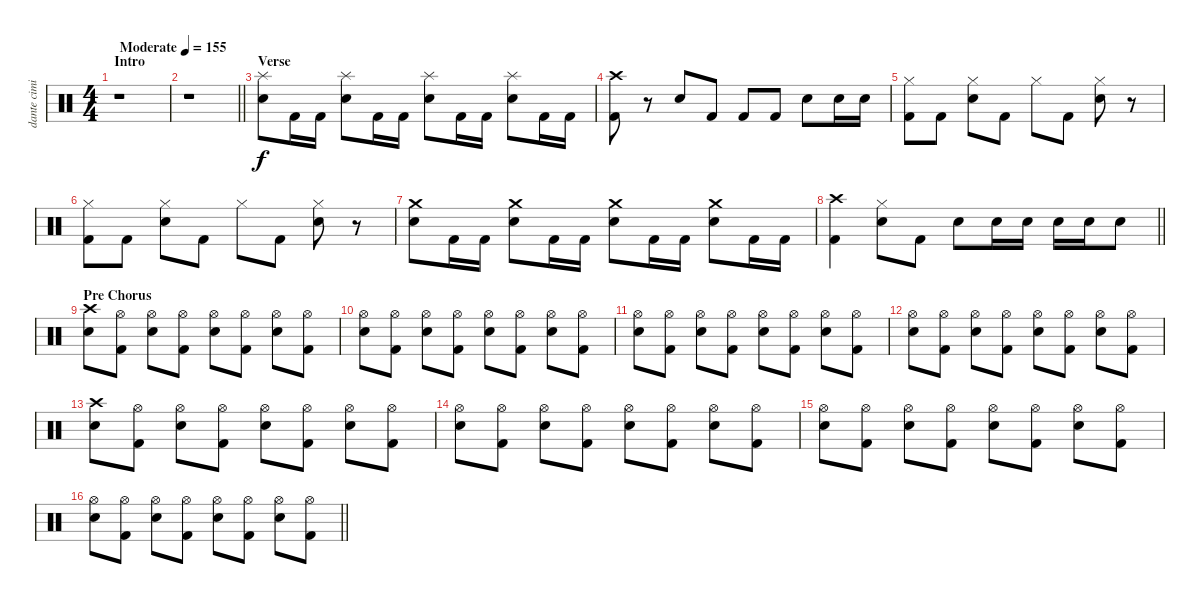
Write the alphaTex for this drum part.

\track ("dante cimino" "dante cimi") {instrument percussion}
\staff {score}
\articulation defaults
\ts (4 4)
\section ("" "Intro")
\tempo (155 "Moderate")
\clef neutral
\ks c
r.1{dy f} |
\barLineRight lightlight
r.1 |
\section ("" "Verse")
("Splash (hit)" "Electric Snare (hit)").8 "Kick (hit) 2".16 "Kick (hit) 2".16 ("Splash (hit)" "Electric Snare (hit)").8 "Kick (hit) 2".16 "Kick (hit) 2".16 ("Splash (hit)" "Electric Snare (hit)").8 "Kick (hit) 2".16 "Kick (hit) 2".16 ("Splash (hit)" "Electric Snare (hit)").8 "Kick (hit) 2".16 "Kick (hit) 2".16 |
("Crash high (hit)" "Kick (hit) 2").8 r.8 "Electric Snare (hit)".8 "Kick (hit) 2".8 "Kick (hit) 2".8 "Kick (hit) 2".8 "Electric Snare (hit)".8 "Electric Snare (hit)".16 "Electric Snare (hit)".16 |
("Hi-Hat (closed)" "Kick (hit) 2").8 "Kick (hit) 2".8 ("Hi-Hat (closed)" "Electric Snare (hit)").8 "Kick (hit) 2".8 "Hi-Hat (closed)".8 "Kick (hit) 2".8 ("Hi-Hat (closed)" "Electric Snare (hit)").8 r.8 |
("Hi-Hat (closed)" "Kick (hit) 2").8 "Kick (hit) 2".8 ("Hi-Hat (closed)" "Electric Snare (hit)").8 "Kick (hit) 2".8 "Hi-Hat (closed)".8 "Kick (hit) 2".8 ("Hi-Hat (closed)" "Electric Snare (hit)").8 r.8 |
("Crash medium (hit)" "Electric Snare (hit)").8 "Kick (hit) 2".16 "Kick (hit) 2".16 ("Crash medium (hit)" "Electric Snare (hit)").8 "Kick (hit) 2".16 "Kick (hit) 2".16 ("Crash medium (hit)" "Electric Snare (hit)").8 "Kick (hit) 2".16 "Kick (hit) 2".16 ("Crash medium (hit)" "Electric Snare (hit)").8 "Kick (hit) 2".16 "Kick (hit) 2".16 |
\barLineRight lightlight
("Crash high (hit)" "Kick (hit) 2").4 ("Hi-Hat (closed)" "Electric Snare (hit)").8 "Kick (hit) 2".8 "Electric Snare (hit)".8 "Electric Snare (hit)".16 "Electric Snare (hit)".16 "Electric Snare (hit)".16 "Electric Snare (hit)".16 "Electric Snare (hit)".8 |
\section ("" "Pre Chorus")
("Crash high (hit)" "Electric Snare (hit)").8 ("Hi-Hat (open)" "Kick (hit) 2").8 ("Hi-Hat (open)" "Electric Snare (hit)").8 ("Hi-Hat (open)" "Kick (hit) 2").8 ("Hi-Hat (open)" "Electric Snare (hit)").8 ("Hi-Hat (open)" "Kick (hit) 2").8 ("Hi-Hat (open)" "Electric Snare (hit)").8 ("Hi-Hat (open)" "Kick (hit) 2").8 |
("Hi-Hat (open)" "Electric Snare (hit)").8 ("Hi-Hat (open)" "Kick (hit) 2").8 ("Hi-Hat (open)" "Electric Snare (hit)").8 ("Hi-Hat (open)" "Kick (hit) 2").8 ("Hi-Hat (open)" "Electric Snare (hit)").8 ("Hi-Hat (open)" "Kick (hit) 2").8 ("Hi-Hat (open)" "Electric Snare (hit)").8 ("Hi-Hat (open)" "Kick (hit) 2").8 |
("Hi-Hat (open)" "Electric Snare (hit)").8 ("Hi-Hat (open)" "Kick (hit) 2").8 ("Hi-Hat (open)" "Electric Snare (hit)").8 ("Hi-Hat (open)" "Kick (hit) 2").8 ("Hi-Hat (open)" "Electric Snare (hit)").8 ("Hi-Hat (open)" "Kick (hit) 2").8 ("Hi-Hat (open)" "Electric Snare (hit)").8 ("Hi-Hat (open)" "Kick (hit) 2").8 |
("Hi-Hat (open)" "Electric Snare (hit)").8 ("Hi-Hat (open)" "Kick (hit) 2").8 ("Hi-Hat (open)" "Electric Snare (hit)").8 ("Hi-Hat (open)" "Kick (hit) 2").8 ("Hi-Hat (open)" "Electric Snare (hit)").8 ("Hi-Hat (open)" "Kick (hit) 2").8 ("Hi-Hat (open)" "Electric Snare (hit)").8 ("Hi-Hat (open)" "Kick (hit) 2").8 |
("Crash high (hit)" "Electric Snare (hit)").8 ("Hi-Hat (open)" "Kick (hit) 2").8 ("Hi-Hat (open)" "Electric Snare (hit)").8 ("Hi-Hat (open)" "Kick (hit) 2").8 ("Hi-Hat (open)" "Electric Snare (hit)").8 ("Hi-Hat (open)" "Kick (hit) 2").8 ("Hi-Hat (open)" "Electric Snare (hit)").8 ("Hi-Hat (open)" "Kick (hit) 2").8 |
("Hi-Hat (open)" "Electric Snare (hit)").8 ("Hi-Hat (open)" "Kick (hit) 2").8 ("Hi-Hat (open)" "Electric Snare (hit)").8 ("Hi-Hat (open)" "Kick (hit) 2").8 ("Hi-Hat (open)" "Electric Snare (hit)").8 ("Hi-Hat (open)" "Kick (hit) 2").8 ("Hi-Hat (open)" "Electric Snare (hit)").8 ("Hi-Hat (open)" "Kick (hit) 2").8 |
("Hi-Hat (open)" "Electric Snare (hit)").8 ("Hi-Hat (open)" "Kick (hit) 2").8 ("Hi-Hat (open)" "Electric Snare (hit)").8 ("Hi-Hat (open)" "Kick (hit) 2").8 ("Hi-Hat (open)" "Electric Snare (hit)").8 ("Hi-Hat (open)" "Kick (hit) 2").8 ("Hi-Hat (open)" "Electric Snare (hit)").8 ("Hi-Hat (open)" "Kick (hit) 2").8 |
\barLineRight lightlight
("Hi-Hat (open)" "Electric Snare (hit)").8 ("Hi-Hat (open)" "Kick (hit) 2").8 ("Hi-Hat (open)" "Electric Snare (hit)").8 ("Hi-Hat (open)" "Kick (hit) 2").8 ("Hi-Hat (open)" "Electric Snare (hit)").8 ("Hi-Hat (open)" "Kick (hit) 2").8 ("Hi-Hat (open)" "Electric Snare (hit)").8 ("Hi-Hat (open)" "Kick (hit) 2").8
